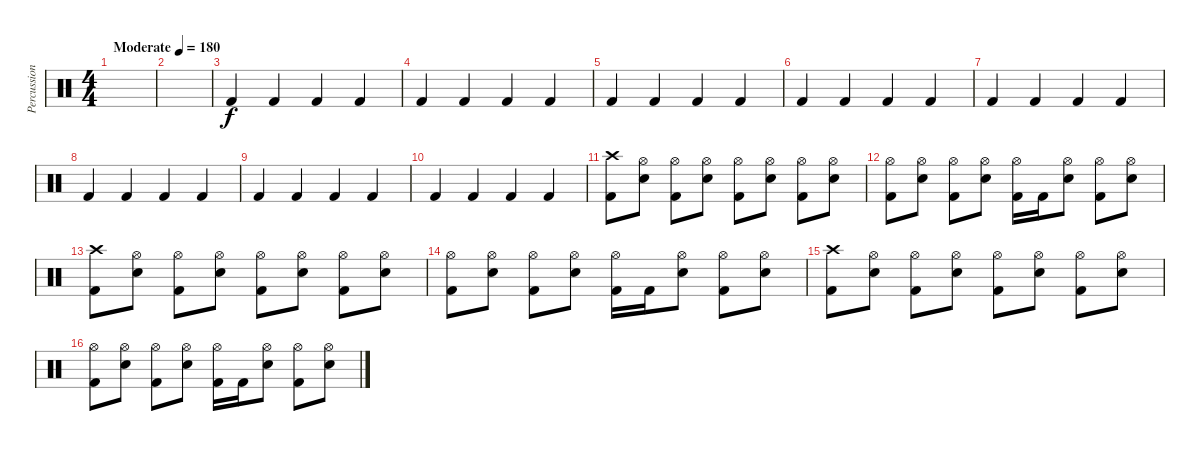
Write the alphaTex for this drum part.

\track ("Percussion" "Percussion") {instrument percussion}
\staff {score}
\articulation defaults
\ts (4 4)
\tempo (180 "Moderate")
\clef neutral
\ks c
|
|
"Kick (hit) 2".4 "Kick (hit) 2".4 "Kick (hit) 2".4 "Kick (hit) 2".4 |
"Kick (hit) 2".4 "Kick (hit) 2".4 "Kick (hit) 2".4 "Kick (hit) 2".4 |
"Kick (hit) 2".4 "Kick (hit) 2".4 "Kick (hit) 2".4 "Kick (hit) 2".4 |
"Kick (hit) 2".4 "Kick (hit) 2".4 "Kick (hit) 2".4 "Kick (hit) 2".4 |
"Kick (hit) 2".4 "Kick (hit) 2".4 "Kick (hit) 2".4 "Kick (hit) 2".4 |
"Kick (hit) 2".4 "Kick (hit) 2".4 "Kick (hit) 2".4 "Kick (hit) 2".4 |
"Kick (hit) 2".4 "Kick (hit) 2".4 "Kick (hit) 2".4 "Kick (hit) 2".4 |
"Kick (hit) 2".4 "Kick (hit) 2".4 "Kick (hit) 2".4 "Kick (hit) 2".4 |
("Crash high (hit)" "Kick (hit) 2").8 ("Hi-Hat (open)" "Electric Snare (hit)").8 ("Hi-Hat (open)" "Kick (hit) 2").8 ("Hi-Hat (open)" "Electric Snare (hit)").8 ("Hi-Hat (open)" "Kick (hit) 2").8 ("Hi-Hat (open)" "Electric Snare (hit)").8 ("Hi-Hat (open)" "Kick (hit) 2").8 ("Hi-Hat (open)" "Electric Snare (hit)").8 |
("Hi-Hat (open)" "Kick (hit) 2").8 ("Hi-Hat (open)" "Electric Snare (hit)").8 ("Hi-Hat (open)" "Kick (hit) 2").8 ("Hi-Hat (open)" "Electric Snare (hit)").8 ("Hi-Hat (open)" "Kick (hit) 2").16 "Kick (hit) 2".16 ("Hi-Hat (open)" "Electric Snare (hit)").8 ("Hi-Hat (open)" "Kick (hit) 2").8 ("Hi-Hat (open)" "Electric Snare (hit)").8 |
("Crash high (hit)" "Kick (hit) 2").8 ("Hi-Hat (open)" "Electric Snare (hit)").8 ("Hi-Hat (open)" "Kick (hit) 2").8 ("Hi-Hat (open)" "Electric Snare (hit)").8 ("Hi-Hat (open)" "Kick (hit) 2").8 ("Hi-Hat (open)" "Electric Snare (hit)").8 ("Hi-Hat (open)" "Kick (hit) 2").8 ("Hi-Hat (open)" "Electric Snare (hit)").8 |
("Hi-Hat (open)" "Kick (hit) 2").8 ("Hi-Hat (open)" "Electric Snare (hit)").8 ("Hi-Hat (open)" "Kick (hit) 2").8 ("Hi-Hat (open)" "Electric Snare (hit)").8 ("Hi-Hat (open)" "Kick (hit) 2").16 "Kick (hit) 2".16 ("Hi-Hat (open)" "Electric Snare (hit)").8 ("Hi-Hat (open)" "Kick (hit) 2").8 ("Hi-Hat (open)" "Electric Snare (hit)").8 |
("Crash high (hit)" "Kick (hit) 2").8 ("Hi-Hat (open)" "Electric Snare (hit)").8 ("Hi-Hat (open)" "Kick (hit) 2").8 ("Hi-Hat (open)" "Electric Snare (hit)").8 ("Hi-Hat (open)" "Kick (hit) 2").8 ("Hi-Hat (open)" "Electric Snare (hit)").8 ("Hi-Hat (open)" "Kick (hit) 2").8 ("Hi-Hat (open)" "Electric Snare (hit)").8 |
("Hi-Hat (open)" "Kick (hit) 2").8 ("Hi-Hat (open)" "Electric Snare (hit)").8 ("Hi-Hat (open)" "Kick (hit) 2").8 ("Hi-Hat (open)" "Electric Snare (hit)").8 ("Hi-Hat (open)" "Kick (hit) 2").16 "Kick (hit) 2".16 ("Hi-Hat (open)" "Electric Snare (hit)").8 ("Hi-Hat (open)" "Kick (hit) 2").8 ("Hi-Hat (open)" "Electric Snare (hit)").8
